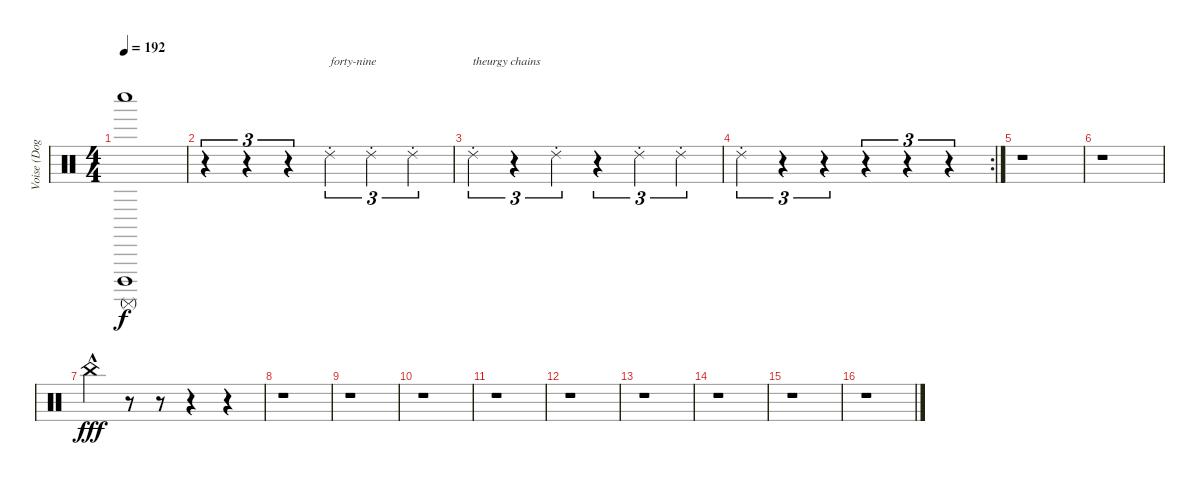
\track ("Voise (Dog)" "Voise (Dog") {instrument percussion}
\staff {score}
\articulation defaults
\ts (4 4)
\tempo 192
\clef neutral
\ks c
("Surdo (mute)" "Whistle low (hit)" "Cuica (open)").1{dy f} |
r.4{tu (3 2)} r.4{tu (3 2)} r.4{tu (3 2)} "Ride (choke) 2".4{tu (3 2) txt "forty-nine"} "Ride (choke) 2".4{tu (3 2)} "Ride (choke) 2".4{tu (3 2)} |
"Ride (choke) 2".4{tu (3 2) txt "theurgy chains"} r.4{tu (3 2)} "Ride (choke) 2".4{tu (3 2)} r.4{tu (3 2)} "Ride (choke) 2".4{tu (3 2)} "Ride (choke) 2".4{tu (3 2)} |
\rc 2 "Ride (choke) 2".4{tu (3 2)}
r.4{tu (3 2)} r.4{tu (3 2)} r.4{tu (3 2)} r.4{tu (3 2)} r.4{tu (3 2)} |
r.1 |
r.1 |
"China (hit)"{hac}.4{dy fff} r.8 r.8 r.4 r.4 |
r.1 |
r.1 |
r.1 |
r.1 |
r.1 |
r.1 |
r.1 |
r.1 |
r.1
